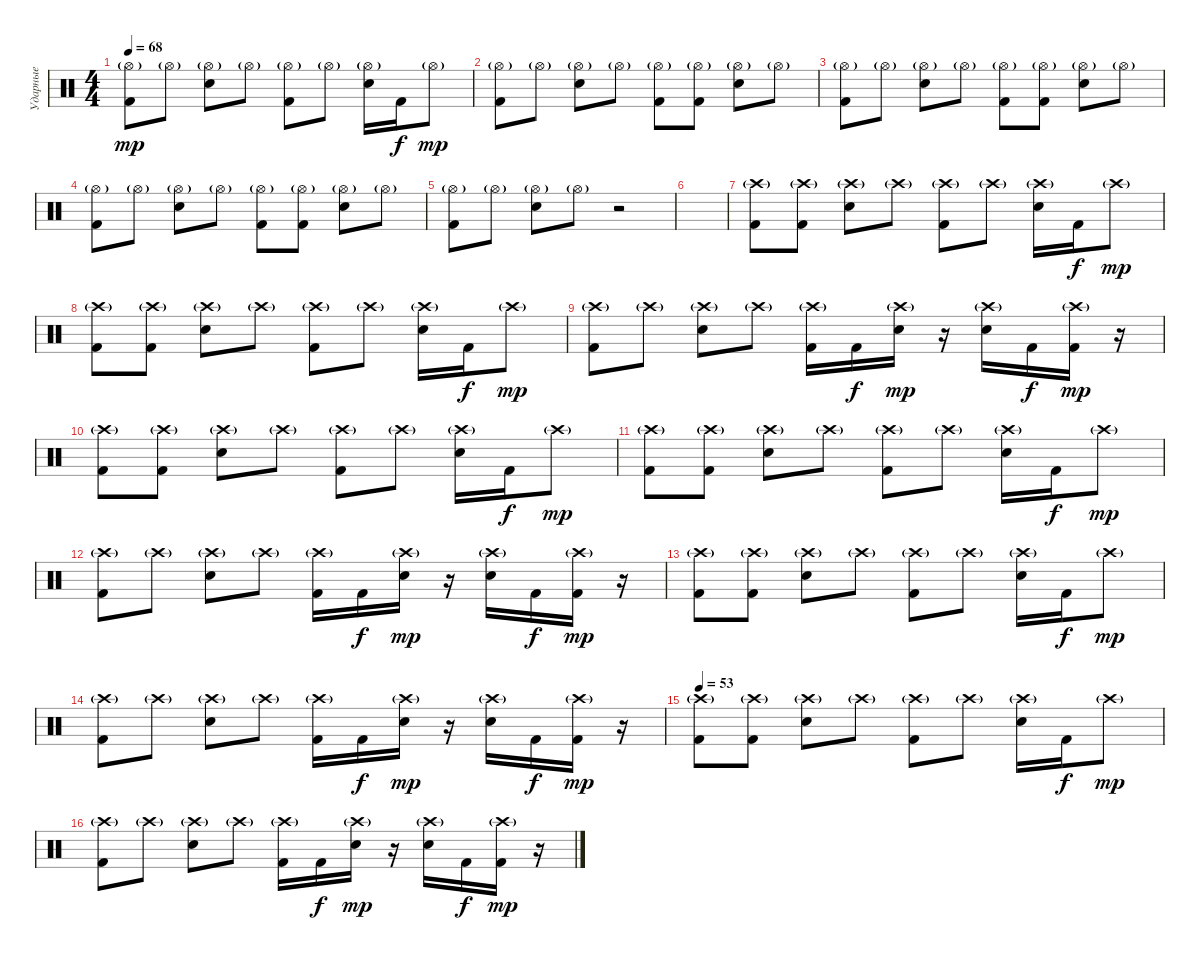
\track ("Ударные" "Ударные") {instrument percussion}
\staff {score}
\articulation defaults
\ts (4 4)
\tempo 68
\clef neutral
\ks c
("Hi-Hat (open)"{g} "Kick (hit) 2").8{dy mp} "Hi-Hat (open)"{g}.8 ("Hi-Hat (open)"{g} "Snare (hit) 2").8 "Hi-Hat (open)"{g}.8 ("Hi-Hat (open)"{g} "Kick (hit) 2").8 "Hi-Hat (open)"{g}.8 ("Hi-Hat (open)"{g} "Snare (hit) 2").16 "Kick (hit) 2".16{dy f} "Hi-Hat (open)"{g}.8{dy mp} |
("Hi-Hat (open)"{g} "Kick (hit) 2").8 "Hi-Hat (open)"{g}.8 ("Hi-Hat (open)"{g} "Snare (hit) 2").8 "Hi-Hat (open)"{g}.8 ("Hi-Hat (open)"{g} "Kick (hit) 2").8 ("Hi-Hat (open)"{g} "Kick (hit) 2").8 ("Hi-Hat (open)"{g} "Snare (hit) 2").8 "Hi-Hat (open)"{g}.8 |
("Hi-Hat (open)"{g} "Kick (hit) 2").8 "Hi-Hat (open)"{g}.8 ("Hi-Hat (open)"{g} "Snare (hit) 2").8 "Hi-Hat (open)"{g}.8 ("Hi-Hat (open)"{g} "Kick (hit) 2").8 ("Hi-Hat (open)"{g} "Kick (hit) 2").8 ("Hi-Hat (open)"{g} "Snare (hit) 2").8 "Hi-Hat (open)"{g}.8 |
("Hi-Hat (open)"{g} "Kick (hit) 2").8 "Hi-Hat (open)"{g}.8 ("Hi-Hat (open)"{g} "Snare (hit) 2").8 "Hi-Hat (open)"{g}.8 ("Hi-Hat (open)"{g} "Kick (hit) 2").8 ("Hi-Hat (open)"{g} "Kick (hit) 2").8 ("Hi-Hat (open)"{g} "Snare (hit) 2").8 "Hi-Hat (open)"{g}.8 |
("Hi-Hat (open)"{g} "Kick (hit) 2").8 "Hi-Hat (open)"{g}.8 ("Hi-Hat (open)"{g} "Snare (hit) 2").8 "Hi-Hat (open)"{g}.8 r.2 |
|
("Crash high (hit)"{g} "Kick (hit) 2").8 ("Crash high (hit)"{g} "Kick (hit) 2").8 ("Crash high (hit)"{g} "Snare (hit) 2").8 "Crash high (hit)"{g}.8 ("Crash high (hit)"{g} "Kick (hit) 2").8 "Crash high (hit)"{g}.8 ("Crash high (hit)"{g} "Snare (hit) 2").16 "Kick (hit) 2".16{dy f} "Crash high (hit)"{g}.8{dy mp} |
("Crash high (hit)"{g} "Kick (hit) 2").8 ("Crash high (hit)"{g} "Kick (hit) 2").8 ("Crash high (hit)"{g} "Snare (hit) 2").8 "Crash high (hit)"{g}.8 ("Crash high (hit)"{g} "Kick (hit) 2").8 "Crash high (hit)"{g}.8 ("Crash high (hit)"{g} "Snare (hit) 2").16 "Kick (hit) 2".16{dy f} "Crash high (hit)"{g}.8{dy mp} |
("Crash high (hit)"{g} "Kick (hit) 2").8 "Crash high (hit)"{g}.8 ("Crash high (hit)"{g} "Snare (hit) 2").8 "Crash high (hit)"{g}.8 ("Crash high (hit)"{g} "Kick (hit) 2").16 "Kick (hit) 2".16{dy f} ("Crash high (hit)"{g} "Snare (hit) 2").16{dy mp} r.16 ("Crash high (hit)"{g} "Snare (hit) 2").16 "Kick (hit) 2".16{dy f} ("Crash high (hit)"{g} "Kick (hit) 2").16{dy mp} r.16 |
("Crash high (hit)"{g} "Kick (hit) 2").8 ("Crash high (hit)"{g} "Kick (hit) 2").8 ("Crash high (hit)"{g} "Snare (hit) 2").8 "Crash high (hit)"{g}.8 ("Crash high (hit)"{g} "Kick (hit) 2").8 "Crash high (hit)"{g}.8 ("Crash high (hit)"{g} "Snare (hit) 2").16 "Kick (hit) 2".16{dy f} "Crash high (hit)"{g}.8{dy mp} |
("Crash high (hit)"{g} "Kick (hit) 2").8 ("Crash high (hit)"{g} "Kick (hit) 2").8 ("Crash high (hit)"{g} "Snare (hit) 2").8 "Crash high (hit)"{g}.8 ("Crash high (hit)"{g} "Kick (hit) 2").8 "Crash high (hit)"{g}.8 ("Crash high (hit)"{g} "Snare (hit) 2").16 "Kick (hit) 2".16{dy f} "Crash high (hit)"{g}.8{dy mp} |
("Crash high (hit)"{g} "Kick (hit) 2").8 "Crash high (hit)"{g}.8 ("Crash high (hit)"{g} "Snare (hit) 2").8 "Crash high (hit)"{g}.8 ("Crash high (hit)"{g} "Kick (hit) 2").16 "Kick (hit) 2".16{dy f} ("Crash high (hit)"{g} "Snare (hit) 2").16{dy mp} r.16 ("Crash high (hit)"{g} "Snare (hit) 2").16 "Kick (hit) 2".16{dy f} ("Crash high (hit)"{g} "Kick (hit) 2").16{dy mp} r.16 |
("Crash high (hit)"{g} "Kick (hit) 2").8 ("Crash high (hit)"{g} "Kick (hit) 2").8 ("Crash high (hit)"{g} "Snare (hit) 2").8 "Crash high (hit)"{g}.8 ("Crash high (hit)"{g} "Kick (hit) 2").8 "Crash high (hit)"{g}.8 ("Crash high (hit)"{g} "Snare (hit) 2").16 "Kick (hit) 2".16{dy f} "Crash high (hit)"{g}.8{dy mp} |
("Crash high (hit)"{g} "Kick (hit) 2").8 "Crash high (hit)"{g}.8 ("Crash high (hit)"{g} "Snare (hit) 2").8 "Crash high (hit)"{g}.8 ("Crash high (hit)"{g} "Kick (hit) 2").16 "Kick (hit) 2".16{dy f} ("Crash high (hit)"{g} "Snare (hit) 2").16{dy mp} r.16 ("Crash high (hit)"{g} "Snare (hit) 2").16 "Kick (hit) 2".16{dy f} ("Crash high (hit)"{g} "Kick (hit) 2").16{dy mp} r.16 |
\tempo 53
("Crash high (hit)"{g} "Kick (hit) 2").8 ("Crash high (hit)"{g} "Kick (hit) 2").8 ("Crash high (hit)"{g} "Snare (hit) 2").8 "Crash high (hit)"{g}.8 ("Crash high (hit)"{g} "Kick (hit) 2").8 "Crash high (hit)"{g}.8 ("Crash high (hit)"{g} "Snare (hit) 2").16 "Kick (hit) 2".16{dy f} "Crash high (hit)"{g}.8{dy mp} |
("Crash high (hit)"{g} "Kick (hit) 2").8 "Crash high (hit)"{g}.8 ("Crash high (hit)"{g} "Snare (hit) 2").8 "Crash high (hit)"{g}.8 ("Crash high (hit)"{g} "Kick (hit) 2").16 "Kick (hit) 2".16{dy f} ("Crash high (hit)"{g} "Snare (hit) 2").16{dy mp} r.16 ("Crash high (hit)"{g} "Snare (hit) 2").16 "Kick (hit) 2".16{dy f} ("Crash high (hit)"{g} "Kick (hit) 2").16{dy mp} r.16
